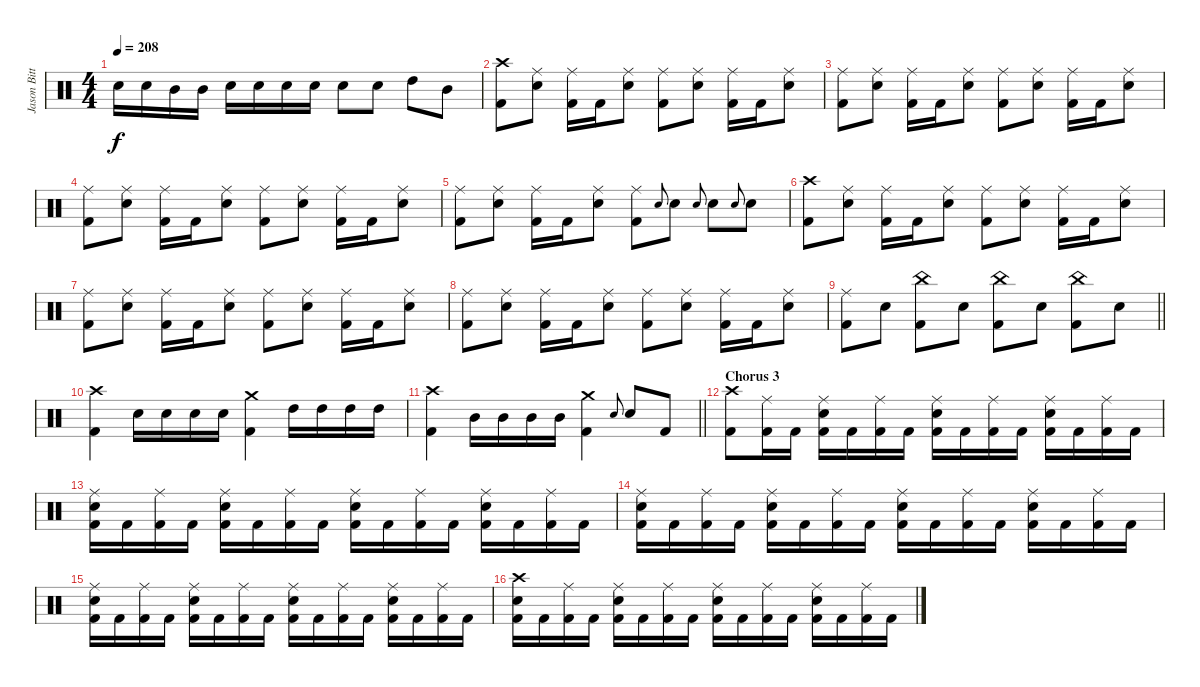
\track ("Jason Bittner" "Jason Bitt") {instrument percussion}
\staff {score}
\articulation defaults
\ts (4 4)
\tempo 208
\clef neutral
\ks c "Electric Snare (hit)".16{dy f} "Electric Snare (hit)".16 "Mid Tom (hit)".16 "Mid Tom (hit)".16 "Electric Snare (hit)".16 "Electric Snare (hit)".16 "Electric Snare (hit)".16 "Electric Snare (hit)".16 "Electric Snare (hit)".8 "Electric Snare (hit)".8 "High Tom (hit)".8 "Mid Tom (hit)".8
|
("Crash high (hit)" "Kick (hit) 2").8 ("Ride (middle)" "Electric Snare (hit)").8 ("Ride (middle)" "Kick (hit) 2").16 "Kick (hit) 2".16 ("Ride (middle)" "Electric Snare (hit)").8 ("Ride (middle)" "Kick (hit) 2").8 ("Ride (middle)" "Electric Snare (hit)").8 ("Ride (middle)" "Kick (hit) 2").16 "Kick (hit) 2".16 ("Ride (middle)" "Electric Snare (hit)").8 |
("Ride (middle)" "Kick (hit) 2").8 ("Ride (middle)" "Electric Snare (hit)").8 ("Ride (middle)" "Kick (hit) 2").16 "Kick (hit) 2".16 ("Ride (middle)" "Electric Snare (hit)").8 ("Ride (middle)" "Kick (hit) 2").8 ("Ride (middle)" "Electric Snare (hit)").8 ("Ride (middle)" "Kick (hit) 2").16 "Kick (hit) 2".16 ("Ride (middle)" "Electric Snare (hit)").8 |
("Ride (middle)" "Kick (hit) 2").8 ("Ride (middle)" "Electric Snare (hit)").8 ("Ride (middle)" "Kick (hit) 2").16 "Kick (hit) 2".16 ("Ride (middle)" "Electric Snare (hit)").8 ("Ride (middle)" "Kick (hit) 2").8 ("Ride (middle)" "Electric Snare (hit)").8 ("Ride (middle)" "Kick (hit) 2").16 "Kick (hit) 2".16 ("Ride (middle)" "Electric Snare (hit)").8 |
("Ride (middle)" "Kick (hit) 2").8 ("Ride (middle)" "Electric Snare (hit)").8 ("Ride (middle)" "Kick (hit) 2").16 "Kick (hit) 2".16 ("Ride (middle)" "Electric Snare (hit)").8 ("Ride (middle)" "Kick (hit) 2").8 "Electric Snare (hit)".8{gr onbeat} "Electric Snare (hit)".8 "Electric Snare (hit)".8{gr onbeat} "Electric Snare (hit)".8 "Electric Snare (hit)".8{gr onbeat} "Electric Snare (hit)".8 |
("Crash high (hit)" "Kick (hit) 2").8 ("Ride (middle)" "Electric Snare (hit)").8 ("Ride (middle)" "Kick (hit) 2").16 "Kick (hit) 2".16 ("Ride (middle)" "Electric Snare (hit)").8 ("Ride (middle)" "Kick (hit) 2").8 ("Ride (middle)" "Electric Snare (hit)").8 ("Ride (middle)" "Kick (hit) 2").16 "Kick (hit) 2".16 ("Ride (middle)" "Electric Snare (hit)").8 |
("Ride (middle)" "Kick (hit) 2").8 ("Ride (middle)" "Electric Snare (hit)").8 ("Ride (middle)" "Kick (hit) 2").16 "Kick (hit) 2".16 ("Ride (middle)" "Electric Snare (hit)").8 ("Ride (middle)" "Kick (hit) 2").8 ("Ride (middle)" "Electric Snare (hit)").8 ("Ride (middle)" "Kick (hit) 2").16 "Kick (hit) 2".16 ("Ride (middle)" "Electric Snare (hit)").8 |
("Ride (middle)" "Kick (hit) 2").8 ("Ride (middle)" "Electric Snare (hit)").8 ("Ride (middle)" "Kick (hit) 2").16 "Kick (hit) 2".16 ("Ride (middle)" "Electric Snare (hit)").8 ("Ride (middle)" "Kick (hit) 2").8 ("Ride (middle)" "Electric Snare (hit)").8 ("Ride (middle)" "Kick (hit) 2").16 "Kick (hit) 2".16 ("Ride (middle)" "Electric Snare (hit)").8 |
\barLineRight lightlight
("Ride (middle)" "Kick (hit) 2").8 "Electric Snare (hit)".8 ("China (hit)" "Kick (hit) 2").8 "Electric Snare (hit)".8 ("China (hit)" "Kick (hit) 2").8 "Electric Snare (hit)".8 ("China (hit)" "Kick (hit) 2").8 "Electric Snare (hit)".8 |
("Crash high (hit)" "Kick (hit) 2").4 "Electric Snare (hit)".16 "Electric Snare (hit)".16 "Electric Snare (hit)".16 "Electric Snare (hit)".16 ("Crash medium (hit)" "Kick (hit) 2").4 "High Tom (hit)".16 "High Tom (hit)".16 "High Tom (hit)".16 "High Tom (hit)".16 |
\barLineRight lightlight
("Crash high (hit)" "Kick (hit) 2").4 "Mid Tom (hit)".16 "Mid Tom (hit)".16 "Mid Tom (hit)".16 "Mid Tom (hit)".16 ("Crash medium (hit)" "Kick (hit) 2").4 "Electric Snare (hit)".8{gr onbeat} "Electric Snare (hit)".8 "Kick (hit) 2".8 |
\section ("" "Chorus 3")
("Crash high (hit)" "Kick (hit) 2").8 ("Ride (middle)" "Kick (hit) 2").16 "Kick (hit) 2".16 ("Ride (middle)" "Electric Snare (hit)" "Kick (hit) 2").16 "Kick (hit) 2".16 ("Ride (middle)" "Kick (hit) 2").16 "Kick (hit) 2".16 ("Ride (middle)" "Electric Snare (hit)" "Kick (hit) 2").16 "Kick (hit) 2".16 ("Ride (middle)" "Kick (hit) 2").16 "Kick (hit) 2".16 ("Ride (middle)" "Electric Snare (hit)" "Kick (hit) 2").16 "Kick (hit) 2".16 ("Ride (middle)" "Kick (hit) 2").16 "Kick (hit) 2".16 |
("Ride (middle)" "Electric Snare (hit)" "Kick (hit) 2").16 "Kick (hit) 2".16 ("Ride (middle)" "Kick (hit) 2").16 "Kick (hit) 2".16 ("Ride (middle)" "Electric Snare (hit)" "Kick (hit) 2").16 "Kick (hit) 2".16 ("Ride (middle)" "Kick (hit) 2").16 "Kick (hit) 2".16 ("Ride (middle)" "Electric Snare (hit)" "Kick (hit) 2").16 "Kick (hit) 2".16 ("Ride (middle)" "Kick (hit) 2").16 "Kick (hit) 2".16 ("Ride (middle)" "Electric Snare (hit)" "Kick (hit) 2").16 "Kick (hit) 2".16 ("Ride (middle)" "Kick (hit) 2").16 "Kick (hit) 2".16 |
("Ride (middle)" "Electric Snare (hit)" "Kick (hit) 2").16 "Kick (hit) 2".16 ("Ride (middle)" "Kick (hit) 2").16 "Kick (hit) 2".16 ("Ride (middle)" "Electric Snare (hit)" "Kick (hit) 2").16 "Kick (hit) 2".16 ("Ride (middle)" "Kick (hit) 2").16 "Kick (hit) 2".16 ("Ride (middle)" "Electric Snare (hit)" "Kick (hit) 2").16 "Kick (hit) 2".16 ("Ride (middle)" "Kick (hit) 2").16 "Kick (hit) 2".16 ("Ride (middle)" "Electric Snare (hit)" "Kick (hit) 2").16 "Kick (hit) 2".16 ("Ride (middle)" "Kick (hit) 2").16 "Kick (hit) 2".16 |
("Ride (middle)" "Electric Snare (hit)" "Kick (hit) 2").16 "Kick (hit) 2".16 ("Ride (middle)" "Kick (hit) 2").16 "Kick (hit) 2".16 ("Ride (middle)" "Electric Snare (hit)" "Kick (hit) 2").16 "Kick (hit) 2".16 ("Ride (middle)" "Kick (hit) 2").16 "Kick (hit) 2".16 ("Ride (middle)" "Electric Snare (hit)" "Kick (hit) 2").16 "Kick (hit) 2".16 ("Ride (middle)" "Kick (hit) 2").16 "Kick (hit) 2".16 ("Ride (middle)" "Electric Snare (hit)" "Kick (hit) 2").16 "Kick (hit) 2".16 ("Ride (middle)" "Kick (hit) 2").16 "Kick (hit) 2".16 |
("Crash high (hit)" "Electric Snare (hit)" "Kick (hit) 2").16 "Kick (hit) 2".16 ("Ride (middle)" "Kick (hit) 2").16 "Kick (hit) 2".16 ("Ride (middle)" "Electric Snare (hit)" "Kick (hit) 2").16 "Kick (hit) 2".16 ("Ride (middle)" "Kick (hit) 2").16 "Kick (hit) 2".16 ("Ride (middle)" "Electric Snare (hit)" "Kick (hit) 2").16 "Kick (hit) 2".16 ("Ride (middle)" "Kick (hit) 2").16 "Kick (hit) 2".16 ("Ride (middle)" "Electric Snare (hit)" "Kick (hit) 2").16 "Kick (hit) 2".16 ("Ride (middle)" "Kick (hit) 2").16 "Kick (hit) 2".16
